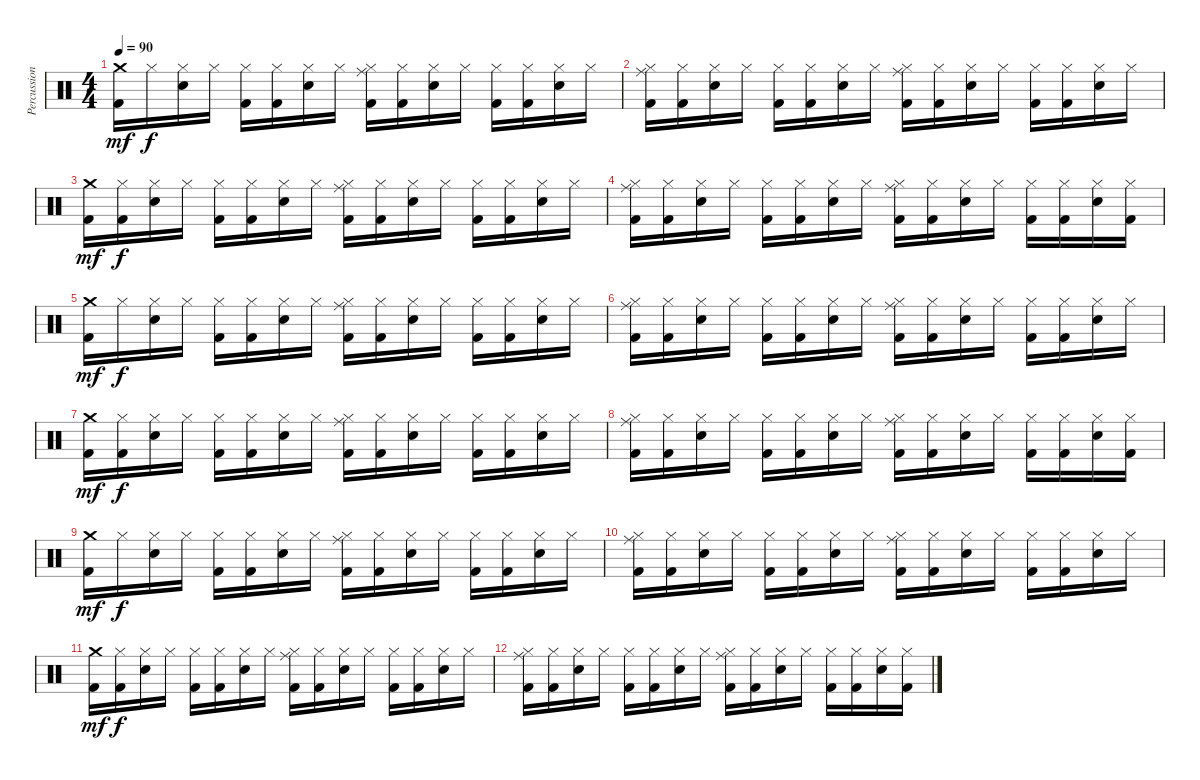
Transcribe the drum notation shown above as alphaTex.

\track ("Percussions" "Percussion") {instrument percussion}
\staff {score}
\articulation defaults
\ts (4 4)
\section ("" "")
\tempo 90
\clef neutral
\ks c
("Kick (hit) 2" "Crash medium (hit)").16{dy mf} "Hi-Hat (closed)".16{dy f} ("Electric Snare (hit)" "Hi-Hat (closed)").16 "Hi-Hat (closed)".16 ("Kick (hit) 2" "Hi-Hat (closed)").16 ("Kick (hit) 2" "Hi-Hat (closed)").16 ("Electric Snare (hit)" "Hi-Hat (closed)").16 "Hi-Hat (closed)".16 ("Kick (hit) 2" "Hi-Hat (closed)" "Ride (middle)").16 ("Kick (hit) 2" "Hi-Hat (closed)").16 ("Electric Snare (hit)" "Hi-Hat (closed)").16 "Hi-Hat (closed)".16 ("Kick (hit) 2" "Hi-Hat (closed)").16 ("Kick (hit) 2" "Hi-Hat (closed)").16 ("Electric Snare (hit)" "Hi-Hat (closed)").16 "Hi-Hat (closed)".16 |
("Kick (hit) 2" "Hi-Hat (closed)" "Ride (middle)").16 ("Kick (hit) 2" "Hi-Hat (closed)").16 ("Electric Snare (hit)" "Hi-Hat (closed)").16 "Hi-Hat (closed)".16 ("Kick (hit) 2" "Hi-Hat (closed)").16 ("Kick (hit) 2" "Hi-Hat (closed)").16 ("Electric Snare (hit)" "Hi-Hat (closed)").16 "Hi-Hat (closed)".16 ("Kick (hit) 2" "Hi-Hat (closed)" "Ride (middle)").16 ("Kick (hit) 2" "Hi-Hat (closed)").16 ("Electric Snare (hit)" "Hi-Hat (closed)").16 "Hi-Hat (closed)".16 ("Kick (hit) 2" "Hi-Hat (closed)").16 ("Kick (hit) 2" "Hi-Hat (closed)").16 ("Electric Snare (hit)" "Hi-Hat (closed)").16 "Hi-Hat (closed)".16 |
("Kick (hit) 2" "Crash medium (hit)").16{dy mf} ("Kick (hit) 2" "Hi-Hat (closed)").16{dy f} ("Electric Snare (hit)" "Hi-Hat (closed)").16 "Hi-Hat (closed)".16 ("Kick (hit) 2" "Hi-Hat (closed)").16 ("Kick (hit) 2" "Hi-Hat (closed)").16 ("Electric Snare (hit)" "Hi-Hat (closed)").16 "Hi-Hat (closed)".16 ("Kick (hit) 2" "Hi-Hat (closed)" "Ride (middle)").16 ("Kick (hit) 2" "Hi-Hat (closed)").16 ("Electric Snare (hit)" "Hi-Hat (closed)").16 "Hi-Hat (closed)".16 ("Kick (hit) 2" "Hi-Hat (closed)").16 ("Kick (hit) 2" "Hi-Hat (closed)").16 ("Electric Snare (hit)" "Hi-Hat (closed)").16 "Hi-Hat (closed)".16 |
("Kick (hit) 2" "Hi-Hat (closed)" "Ride (middle)").16 ("Kick (hit) 2" "Hi-Hat (closed)").16 ("Electric Snare (hit)" "Hi-Hat (closed)").16 "Hi-Hat (closed)".16 ("Kick (hit) 2" "Hi-Hat (closed)").16 ("Kick (hit) 2" "Hi-Hat (closed)").16 ("Electric Snare (hit)" "Hi-Hat (closed)").16 "Hi-Hat (closed)".16 ("Kick (hit) 2" "Hi-Hat (closed)" "Ride (middle)").16 ("Kick (hit) 2" "Hi-Hat (closed)").16 ("Electric Snare (hit)" "Hi-Hat (closed)").16 "Hi-Hat (closed)".16 ("Kick (hit) 2" "Hi-Hat (closed)").16 ("Kick (hit) 2" "Hi-Hat (closed)").16 ("Electric Snare (hit)" "Hi-Hat (closed)").16 ("Kick (hit) 2" "Hi-Hat (closed)").16 |
\section ("" "")
("Kick (hit) 2" "Crash medium (hit)").16{dy mf} "Hi-Hat (closed)".16{dy f} ("Electric Snare (hit)" "Hi-Hat (closed)").16 "Hi-Hat (closed)".16 ("Kick (hit) 2" "Hi-Hat (closed)").16 ("Kick (hit) 2" "Hi-Hat (closed)").16 ("Electric Snare (hit)" "Hi-Hat (closed)").16 "Hi-Hat (closed)".16 ("Kick (hit) 2" "Hi-Hat (closed)" "Ride (middle)").16 ("Kick (hit) 2" "Hi-Hat (closed)").16 ("Electric Snare (hit)" "Hi-Hat (closed)").16 "Hi-Hat (closed)".16 ("Kick (hit) 2" "Hi-Hat (closed)").16 ("Kick (hit) 2" "Hi-Hat (closed)").16 ("Electric Snare (hit)" "Hi-Hat (closed)").16 "Hi-Hat (closed)".16 |
("Kick (hit) 2" "Hi-Hat (closed)" "Ride (middle)").16 ("Kick (hit) 2" "Hi-Hat (closed)").16 ("Electric Snare (hit)" "Hi-Hat (closed)").16 "Hi-Hat (closed)".16 ("Kick (hit) 2" "Hi-Hat (closed)").16 ("Kick (hit) 2" "Hi-Hat (closed)").16 ("Electric Snare (hit)" "Hi-Hat (closed)").16 "Hi-Hat (closed)".16 ("Kick (hit) 2" "Hi-Hat (closed)" "Ride (middle)").16 ("Kick (hit) 2" "Hi-Hat (closed)").16 ("Electric Snare (hit)" "Hi-Hat (closed)").16 "Hi-Hat (closed)".16 ("Kick (hit) 2" "Hi-Hat (closed)").16 ("Kick (hit) 2" "Hi-Hat (closed)").16 ("Electric Snare (hit)" "Hi-Hat (closed)").16 "Hi-Hat (closed)".16 |
("Kick (hit) 2" "Crash medium (hit)").16{dy mf} ("Kick (hit) 2" "Hi-Hat (closed)").16{dy f} ("Electric Snare (hit)" "Hi-Hat (closed)").16 "Hi-Hat (closed)".16 ("Kick (hit) 2" "Hi-Hat (closed)").16 ("Kick (hit) 2" "Hi-Hat (closed)").16 ("Electric Snare (hit)" "Hi-Hat (closed)").16 "Hi-Hat (closed)".16 ("Kick (hit) 2" "Hi-Hat (closed)" "Ride (middle)").16 ("Kick (hit) 2" "Hi-Hat (closed)").16 ("Electric Snare (hit)" "Hi-Hat (closed)").16 "Hi-Hat (closed)".16 ("Kick (hit) 2" "Hi-Hat (closed)").16 ("Kick (hit) 2" "Hi-Hat (closed)").16 ("Electric Snare (hit)" "Hi-Hat (closed)").16 "Hi-Hat (closed)".16 |
("Kick (hit) 2" "Hi-Hat (closed)" "Ride (middle)").16 ("Kick (hit) 2" "Hi-Hat (closed)").16 ("Electric Snare (hit)" "Hi-Hat (closed)").16 "Hi-Hat (closed)".16 ("Kick (hit) 2" "Hi-Hat (closed)").16 ("Kick (hit) 2" "Hi-Hat (closed)").16 ("Electric Snare (hit)" "Hi-Hat (closed)").16 "Hi-Hat (closed)".16 ("Kick (hit) 2" "Hi-Hat (closed)" "Ride (middle)").16 ("Kick (hit) 2" "Hi-Hat (closed)").16 ("Electric Snare (hit)" "Hi-Hat (closed)").16 "Hi-Hat (closed)".16 ("Kick (hit) 2" "Hi-Hat (closed)").16 ("Kick (hit) 2" "Hi-Hat (closed)").16 ("Electric Snare (hit)" "Hi-Hat (closed)").16 ("Kick (hit) 2" "Hi-Hat (closed)").16 |
\section ("" "")
("Kick (hit) 2" "Crash medium (hit)").16{dy mf} "Hi-Hat (closed)".16{dy f} ("Electric Snare (hit)" "Hi-Hat (closed)").16 "Hi-Hat (closed)".16 ("Kick (hit) 2" "Hi-Hat (closed)").16 ("Kick (hit) 2" "Hi-Hat (closed)").16 ("Electric Snare (hit)" "Hi-Hat (closed)").16 "Hi-Hat (closed)".16 ("Kick (hit) 2" "Hi-Hat (closed)" "Ride (middle)").16 ("Kick (hit) 2" "Hi-Hat (closed)").16 ("Electric Snare (hit)" "Hi-Hat (closed)").16 "Hi-Hat (closed)".16 ("Kick (hit) 2" "Hi-Hat (closed)").16 ("Kick (hit) 2" "Hi-Hat (closed)").16 ("Electric Snare (hit)" "Hi-Hat (closed)").16 "Hi-Hat (closed)".16 |
("Kick (hit) 2" "Hi-Hat (closed)" "Ride (middle)").16 ("Kick (hit) 2" "Hi-Hat (closed)").16 ("Electric Snare (hit)" "Hi-Hat (closed)").16 "Hi-Hat (closed)".16 ("Kick (hit) 2" "Hi-Hat (closed)").16 ("Kick (hit) 2" "Hi-Hat (closed)").16 ("Electric Snare (hit)" "Hi-Hat (closed)").16 "Hi-Hat (closed)".16 ("Kick (hit) 2" "Hi-Hat (closed)" "Ride (middle)").16 ("Kick (hit) 2" "Hi-Hat (closed)").16 ("Electric Snare (hit)" "Hi-Hat (closed)").16 "Hi-Hat (closed)".16 ("Kick (hit) 2" "Hi-Hat (closed)").16 ("Kick (hit) 2" "Hi-Hat (closed)").16 ("Electric Snare (hit)" "Hi-Hat (closed)").16 "Hi-Hat (closed)".16 |
("Kick (hit) 2" "Crash medium (hit)").16{dy mf} ("Kick (hit) 2" "Hi-Hat (closed)").16{dy f} ("Electric Snare (hit)" "Hi-Hat (closed)").16 "Hi-Hat (closed)".16 ("Kick (hit) 2" "Hi-Hat (closed)").16 ("Kick (hit) 2" "Hi-Hat (closed)").16 ("Electric Snare (hit)" "Hi-Hat (closed)").16 "Hi-Hat (closed)".16 ("Kick (hit) 2" "Hi-Hat (closed)" "Ride (middle)").16 ("Kick (hit) 2" "Hi-Hat (closed)").16 ("Electric Snare (hit)" "Hi-Hat (closed)").16 "Hi-Hat (closed)".16 ("Kick (hit) 2" "Hi-Hat (closed)").16 ("Kick (hit) 2" "Hi-Hat (closed)").16 ("Electric Snare (hit)" "Hi-Hat (closed)").16 "Hi-Hat (closed)".16 |
("Kick (hit) 2" "Hi-Hat (closed)" "Ride (middle)").16 ("Kick (hit) 2" "Hi-Hat (closed)").16 ("Electric Snare (hit)" "Hi-Hat (closed)").16 "Hi-Hat (closed)".16 ("Kick (hit) 2" "Hi-Hat (closed)").16 ("Kick (hit) 2" "Hi-Hat (closed)").16 ("Electric Snare (hit)" "Hi-Hat (closed)").16 "Hi-Hat (closed)".16 ("Kick (hit) 2" "Hi-Hat (closed)" "Ride (middle)").16 ("Kick (hit) 2" "Hi-Hat (closed)").16 ("Electric Snare (hit)" "Hi-Hat (closed)").16 "Hi-Hat (closed)".16 ("Kick (hit) 2" "Hi-Hat (closed)").16 ("Kick (hit) 2" "Hi-Hat (closed)").16 ("Electric Snare (hit)" "Hi-Hat (closed)").16 ("Kick (hit) 2" "Hi-Hat (closed)").16
